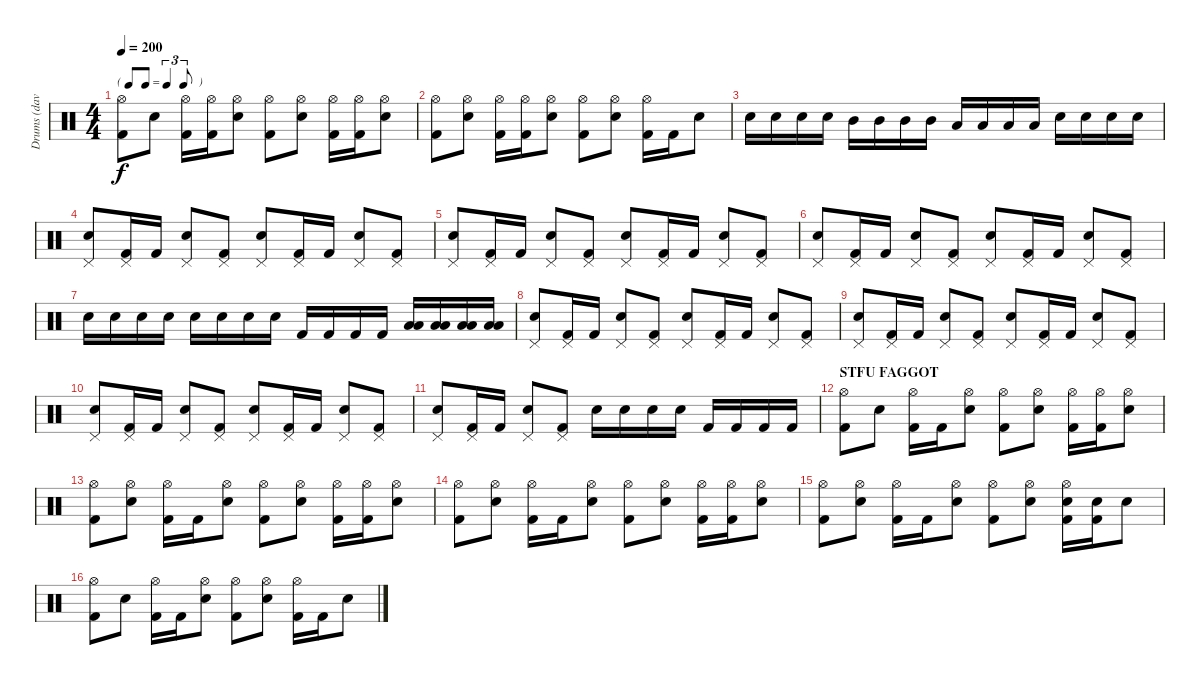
\track ("Drums (dave)" "Drums (dav") {instrument percussion}
\staff {score}
\articulation defaults
\ts (4 4)
\tf triplet8th
\tempo 200
\clef neutral
\ks c
("Hi-Hat (open)" "Kick (hit) 2").8{dy f} "Snare (hit) 2".8 ("Hi-Hat (open)" "Kick (hit) 2").16 ("Hi-Hat (open)" "Kick (hit) 2").16 ("Hi-Hat (open)" "Snare (hit) 2").8 ("Hi-Hat (open)" "Kick (hit) 2").8 ("Hi-Hat (open)" "Snare (hit) 2").8 ("Hi-Hat (open)" "Kick (hit) 2").16 ("Hi-Hat (open)" "Kick (hit) 2").16 ("Hi-Hat (open)" "Snare (hit) 2").8 |
("Hi-Hat (open)" "Kick (hit) 2").8 ("Hi-Hat (open)" "Snare (hit) 2").8 ("Hi-Hat (open)" "Kick (hit) 2").16 ("Hi-Hat (open)" "Kick (hit) 2").16 ("Hi-Hat (open)" "Snare (hit) 2").8 ("Hi-Hat (open)" "Kick (hit) 2").8 ("Hi-Hat (open)" "Snare (hit) 2").8 ("Hi-Hat (open)" "Kick (hit) 2").16 "Kick (hit) 2".16 "Snare (hit) 2".8 |
"Snare (hit) 2".16 "Snare (hit) 2".16 "Snare (hit) 2".16 "Snare (hit) 2".16 "Mid Tom (hit)".16 "Mid Tom (hit)".16 "Mid Tom (hit)".16 "Mid Tom (hit)".16 "Low Tom (hit)".16 "Low Tom (hit)".16 "Low Tom (hit)".16 "Low Tom (hit)".16 "Snare (hit) 2".16 "Snare (hit) 2".16 "Snare (hit) 2".16 "Snare (hit) 2".16 |
("Pedal Hi-Hat (hit)" "Snare (hit) 2").8 ("Pedal Hi-Hat (hit)" "Kick (hit) 2").16 "Kick (hit) 2".16 ("Pedal Hi-Hat (hit)" "Snare (hit) 2").8 ("Pedal Hi-Hat (hit)" "Kick (hit) 2").8 ("Pedal Hi-Hat (hit)" "Snare (hit) 2").8 ("Pedal Hi-Hat (hit)" "Kick (hit) 2").16 "Kick (hit) 2".16 ("Pedal Hi-Hat (hit)" "Snare (hit) 2").8 ("Pedal Hi-Hat (hit)" "Kick (hit) 2").8 |
("Pedal Hi-Hat (hit)" "Snare (hit) 2").8 ("Pedal Hi-Hat (hit)" "Kick (hit) 2").16 "Kick (hit) 2".16 ("Pedal Hi-Hat (hit)" "Snare (hit) 2").8 ("Pedal Hi-Hat (hit)" "Kick (hit) 2").8 ("Pedal Hi-Hat (hit)" "Snare (hit) 2").8 ("Pedal Hi-Hat (hit)" "Kick (hit) 2").16 "Kick (hit) 2".16 ("Pedal Hi-Hat (hit)" "Snare (hit) 2").8 ("Pedal Hi-Hat (hit)" "Kick (hit) 2").8 |
("Pedal Hi-Hat (hit)" "Snare (hit) 2").8 ("Pedal Hi-Hat (hit)" "Kick (hit) 2").16 "Kick (hit) 2".16 ("Pedal Hi-Hat (hit)" "Snare (hit) 2").8 ("Pedal Hi-Hat (hit)" "Kick (hit) 2").8 ("Pedal Hi-Hat (hit)" "Snare (hit) 2").8 ("Pedal Hi-Hat (hit)" "Kick (hit) 2").16 "Kick (hit) 2".16 ("Pedal Hi-Hat (hit)" "Snare (hit) 2").8 ("Pedal Hi-Hat (hit)" "Kick (hit) 2").8 |
"Snare (hit) 2".16 "Snare (hit) 2".16 "Snare (hit) 2".16 "Snare (hit) 2".16 "Snare (hit) 2".16 "Snare (hit) 2".16 "Snare (hit) 2".16 "Snare (hit) 2".16 "Kick (hit) 2".16 "Kick (hit) 2".16 "Kick (hit) 2".16 "Kick (hit) 2".16 ("Low Floor Tom (hit)" "Low Floor Tom (hit)").16 ("Low Floor Tom (hit)" "Low Floor Tom (hit)").16 ("Low Floor Tom (hit)" "Low Floor Tom (hit)").16 ("Low Floor Tom (hit)" "Low Floor Tom (hit)").16 |
("Pedal Hi-Hat (hit)" "Snare (hit) 2").8 ("Pedal Hi-Hat (hit)" "Kick (hit) 2").16 "Kick (hit) 2".16 ("Pedal Hi-Hat (hit)" "Snare (hit) 2").8 ("Pedal Hi-Hat (hit)" "Kick (hit) 2").8 ("Pedal Hi-Hat (hit)" "Snare (hit) 2").8 ("Pedal Hi-Hat (hit)" "Kick (hit) 2").16 "Kick (hit) 2".16 ("Pedal Hi-Hat (hit)" "Snare (hit) 2").8 ("Pedal Hi-Hat (hit)" "Kick (hit) 2").8 |
("Pedal Hi-Hat (hit)" "Snare (hit) 2").8 ("Pedal Hi-Hat (hit)" "Kick (hit) 2").16 "Kick (hit) 2".16 ("Pedal Hi-Hat (hit)" "Snare (hit) 2").8 ("Pedal Hi-Hat (hit)" "Kick (hit) 2").8 ("Pedal Hi-Hat (hit)" "Snare (hit) 2").8 ("Pedal Hi-Hat (hit)" "Kick (hit) 2").16 "Kick (hit) 2".16 ("Pedal Hi-Hat (hit)" "Snare (hit) 2").8 ("Pedal Hi-Hat (hit)" "Kick (hit) 2").8 |
("Pedal Hi-Hat (hit)" "Snare (hit) 2").8 ("Pedal Hi-Hat (hit)" "Kick (hit) 2").16 "Kick (hit) 2".16 ("Pedal Hi-Hat (hit)" "Snare (hit) 2").8 ("Pedal Hi-Hat (hit)" "Kick (hit) 2").8 ("Pedal Hi-Hat (hit)" "Snare (hit) 2").8 ("Pedal Hi-Hat (hit)" "Kick (hit) 2").16 "Kick (hit) 2".16 ("Pedal Hi-Hat (hit)" "Snare (hit) 2").8 ("Pedal Hi-Hat (hit)" "Kick (hit) 2").8 |
("Pedal Hi-Hat (hit)" "Snare (hit) 2").8 ("Pedal Hi-Hat (hit)" "Kick (hit) 2").16 "Kick (hit) 2".16 ("Pedal Hi-Hat (hit)" "Snare (hit) 2").8 ("Pedal Hi-Hat (hit)" "Kick (hit) 2").8 "Snare (hit) 2".16 "Snare (hit) 2".16 "Snare (hit) 2".16 "Snare (hit) 2".16 "Kick (hit) 2".16 "Kick (hit) 2".16 "Kick (hit) 2".16 "Kick (hit) 2".16 |
\section ("" "STFU FAGGOT")
("Hi-Hat (open)" "Kick (hit) 2").8 "Snare (hit) 2".8 ("Hi-Hat (open)" "Kick (hit) 2").16 "Kick (hit) 2".16 ("Hi-Hat (open)" "Snare (hit) 2").8 ("Hi-Hat (open)" "Kick (hit) 2").8 ("Hi-Hat (open)" "Snare (hit) 2").8 ("Hi-Hat (open)" "Kick (hit) 2").16 ("Hi-Hat (open)" "Kick (hit) 2").16 ("Hi-Hat (open)" "Snare (hit) 2").8 |
("Hi-Hat (open)" "Kick (hit) 2").8 ("Hi-Hat (open)" "Snare (hit) 2").8 ("Hi-Hat (open)" "Kick (hit) 2").16 "Kick (hit) 2".16 ("Hi-Hat (open)" "Snare (hit) 2").8 ("Hi-Hat (open)" "Kick (hit) 2").8 ("Hi-Hat (open)" "Snare (hit) 2").8 ("Hi-Hat (open)" "Kick (hit) 2").16 ("Hi-Hat (open)" "Kick (hit) 2").16 ("Hi-Hat (open)" "Snare (hit) 2").8 |
("Hi-Hat (open)" "Kick (hit) 2").8 ("Hi-Hat (open)" "Snare (hit) 2").8 ("Hi-Hat (open)" "Kick (hit) 2").16 "Kick (hit) 2".16 ("Hi-Hat (open)" "Snare (hit) 2").8 ("Hi-Hat (open)" "Kick (hit) 2").8 ("Hi-Hat (open)" "Snare (hit) 2").8 ("Hi-Hat (open)" "Kick (hit) 2").16 ("Hi-Hat (open)" "Kick (hit) 2").16 ("Hi-Hat (open)" "Snare (hit) 2").8 |
("Hi-Hat (open)" "Kick (hit) 2").8 ("Hi-Hat (open)" "Snare (hit) 2").8 ("Hi-Hat (open)" "Kick (hit) 2").16 "Kick (hit) 2".16 ("Hi-Hat (open)" "Snare (hit) 2").8 ("Hi-Hat (open)" "Kick (hit) 2").8 ("Hi-Hat (open)" "Snare (hit) 2").8 ("Hi-Hat (open)" "Snare (hit) 2" "Kick (hit) 2").16 ("Snare (hit) 2" "Kick (hit) 2").16 "Snare (hit) 2".8 |
("Hi-Hat (open)" "Kick (hit) 2").8 "Snare (hit) 2".8 ("Hi-Hat (open)" "Kick (hit) 2").16 "Kick (hit) 2".16 ("Hi-Hat (open)" "Snare (hit) 2").8 ("Hi-Hat (open)" "Kick (hit) 2").8 ("Hi-Hat (open)" "Snare (hit) 2").8 ("Hi-Hat (open)" "Kick (hit) 2").16 "Kick (hit) 2".16 "Snare (hit) 2".8
